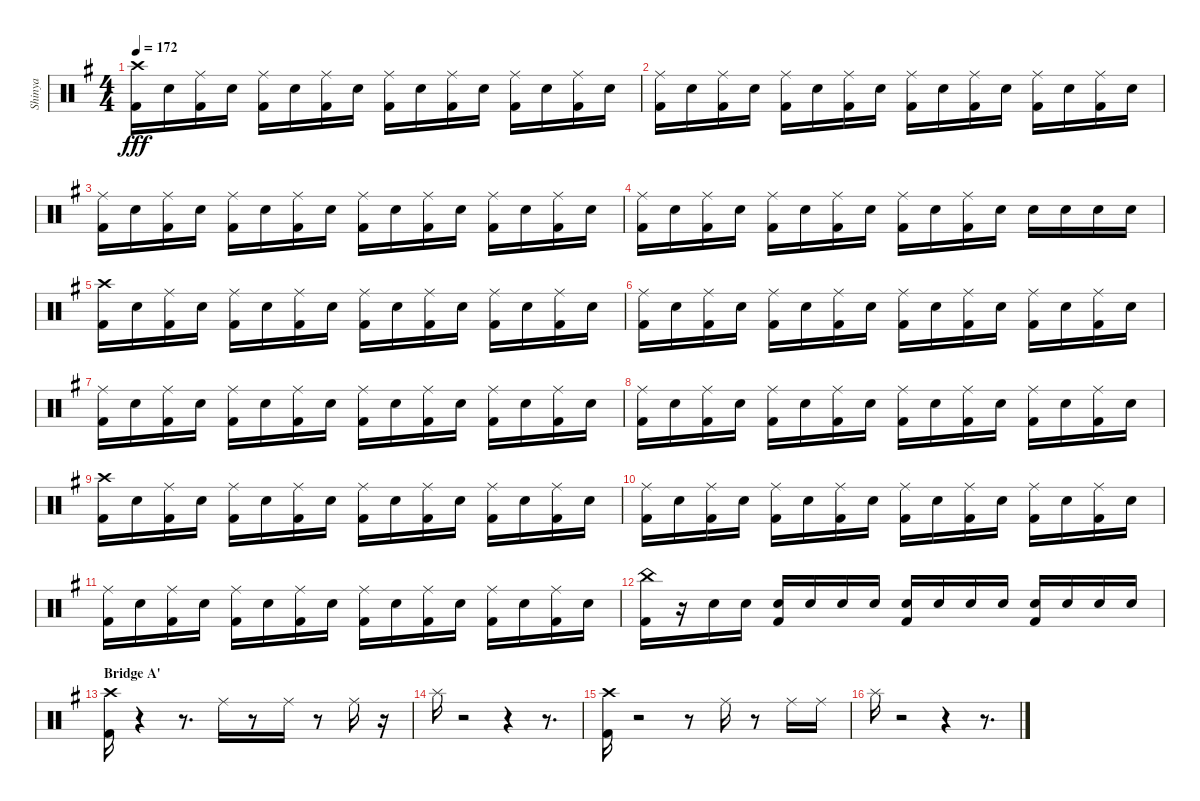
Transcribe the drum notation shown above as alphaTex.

\track ("Shinya" "Shinya") {instrument percussion}
\staff {score}
\articulation defaults
\ts (4 4)
\tempo 172
\clef neutral
\ks eminor
("Kick (hit) 2" "Crash high (hit)").16{dy fff} "Snare (hit) 2".16 ("Kick (hit) 2" "Ride (middle)").16 "Snare (hit) 2".16 ("Kick (hit) 2" "Ride (middle)").16 "Snare (hit) 2".16 ("Kick (hit) 2" "Ride (middle)").16 "Snare (hit) 2".16 ("Kick (hit) 2" "Ride (middle)").16 "Snare (hit) 2".16 ("Kick (hit) 2" "Ride (middle)").16 "Snare (hit) 2".16 ("Kick (hit) 2" "Ride (middle)").16 "Snare (hit) 2".16 ("Kick (hit) 2" "Ride (middle)").16 "Snare (hit) 2".16 |
("Kick (hit) 2" "Ride (middle)").16 "Snare (hit) 2".16 ("Kick (hit) 2" "Ride (middle)").16 "Snare (hit) 2".16 ("Kick (hit) 2" "Ride (middle)").16 "Snare (hit) 2".16 ("Kick (hit) 2" "Ride (middle)").16 "Snare (hit) 2".16 ("Kick (hit) 2" "Ride (middle)").16 "Snare (hit) 2".16 ("Kick (hit) 2" "Ride (middle)").16 "Snare (hit) 2".16 ("Kick (hit) 2" "Ride (middle)").16 "Snare (hit) 2".16 ("Kick (hit) 2" "Ride (middle)").16 "Snare (hit) 2".16 |
("Kick (hit) 2" "Ride (middle)").16 "Snare (hit) 2".16 ("Kick (hit) 2" "Ride (middle)").16 "Snare (hit) 2".16 ("Kick (hit) 2" "Ride (middle)").16 "Snare (hit) 2".16 ("Kick (hit) 2" "Ride (middle)").16 "Snare (hit) 2".16 ("Kick (hit) 2" "Ride (middle)").16 "Snare (hit) 2".16 ("Kick (hit) 2" "Ride (middle)").16 "Snare (hit) 2".16 ("Kick (hit) 2" "Ride (middle)").16 "Snare (hit) 2".16 ("Kick (hit) 2" "Ride (middle)").16 "Snare (hit) 2".16 |
("Kick (hit) 2" "Ride (middle)").16 "Snare (hit) 2".16 ("Kick (hit) 2" "Ride (middle)").16 "Snare (hit) 2".16 ("Kick (hit) 2" "Ride (middle)").16 "Snare (hit) 2".16 ("Kick (hit) 2" "Ride (middle)").16 "Snare (hit) 2".16 ("Kick (hit) 2" "Ride (middle)").16 "Snare (hit) 2".16 ("Kick (hit) 2" "Ride (middle)").16 "Snare (hit) 2".16 "Snare (hit) 2".16 "Snare (hit) 2".16 "Snare (hit) 2".16 "Snare (hit) 2".16 |
("Kick (hit) 2" "Crash high (hit)").16 "Snare (hit) 2".16 ("Kick (hit) 2" "Ride (middle)").16 "Snare (hit) 2".16 ("Kick (hit) 2" "Ride (middle)").16 "Snare (hit) 2".16 ("Kick (hit) 2" "Ride (middle)").16 "Snare (hit) 2".16 ("Kick (hit) 2" "Ride (middle)").16 "Snare (hit) 2".16 ("Kick (hit) 2" "Ride (middle)").16 "Snare (hit) 2".16 ("Kick (hit) 2" "Ride (middle)").16 "Snare (hit) 2".16 ("Kick (hit) 2" "Ride (middle)").16 "Snare (hit) 2".16 |
("Kick (hit) 2" "Ride (middle)").16 "Snare (hit) 2".16 ("Kick (hit) 2" "Ride (middle)").16 "Snare (hit) 2".16 ("Kick (hit) 2" "Ride (middle)").16 "Snare (hit) 2".16 ("Kick (hit) 2" "Ride (middle)").16 "Snare (hit) 2".16 ("Kick (hit) 2" "Ride (middle)").16 "Snare (hit) 2".16 ("Kick (hit) 2" "Ride (middle)").16 "Snare (hit) 2".16 ("Kick (hit) 2" "Ride (middle)").16 "Snare (hit) 2".16 ("Kick (hit) 2" "Ride (middle)").16 "Snare (hit) 2".16 |
("Kick (hit) 2" "Ride (middle)").16 "Snare (hit) 2".16 ("Kick (hit) 2" "Ride (middle)").16 "Snare (hit) 2".16 ("Kick (hit) 2" "Ride (middle)").16 "Snare (hit) 2".16 ("Kick (hit) 2" "Ride (middle)").16 "Snare (hit) 2".16 ("Kick (hit) 2" "Ride (middle)").16 "Snare (hit) 2".16 ("Kick (hit) 2" "Ride (middle)").16 "Snare (hit) 2".16 ("Kick (hit) 2" "Ride (middle)").16 "Snare (hit) 2".16 ("Kick (hit) 2" "Ride (middle)").16 "Snare (hit) 2".16 |
("Kick (hit) 2" "Ride (middle)").16 "Snare (hit) 2".16 ("Kick (hit) 2" "Ride (middle)").16 "Snare (hit) 2".16 ("Kick (hit) 2" "Ride (middle)").16 "Snare (hit) 2".16 ("Kick (hit) 2" "Ride (middle)").16 "Snare (hit) 2".16 ("Kick (hit) 2" "Ride (middle)").16 "Snare (hit) 2".16 ("Kick (hit) 2" "Ride (middle)").16 "Snare (hit) 2".16 ("Kick (hit) 2" "Ride (middle)").16 "Snare (hit) 2".16 ("Kick (hit) 2" "Ride (middle)").16 "Snare (hit) 2".16 |
("Kick (hit) 2" "Crash high (hit)").16 "Snare (hit) 2".16 ("Kick (hit) 2" "Ride (middle)").16 "Snare (hit) 2".16 ("Kick (hit) 2" "Ride (middle)").16 "Snare (hit) 2".16 ("Kick (hit) 2" "Ride (middle)").16 "Snare (hit) 2".16 ("Kick (hit) 2" "Ride (middle)").16 "Snare (hit) 2".16 ("Kick (hit) 2" "Ride (middle)").16 "Snare (hit) 2".16 ("Kick (hit) 2" "Ride (middle)").16 "Snare (hit) 2".16 ("Kick (hit) 2" "Ride (middle)").16 "Snare (hit) 2".16 |
("Kick (hit) 2" "Ride (middle)").16 "Snare (hit) 2".16 ("Kick (hit) 2" "Ride (middle)").16 "Snare (hit) 2".16 ("Kick (hit) 2" "Ride (middle)").16 "Snare (hit) 2".16 ("Kick (hit) 2" "Ride (middle)").16 "Snare (hit) 2".16 ("Kick (hit) 2" "Ride (middle)").16 "Snare (hit) 2".16 ("Kick (hit) 2" "Ride (middle)").16 "Snare (hit) 2".16 ("Kick (hit) 2" "Ride (middle)").16 "Snare (hit) 2".16 ("Kick (hit) 2" "Ride (middle)").16 "Snare (hit) 2".16 |
("Kick (hit) 2" "Ride (middle)").16 "Snare (hit) 2".16 ("Kick (hit) 2" "Ride (middle)").16 "Snare (hit) 2".16 ("Kick (hit) 2" "Ride (middle)").16 "Snare (hit) 2".16 ("Kick (hit) 2" "Ride (middle)").16 "Snare (hit) 2".16 ("Kick (hit) 2" "Ride (middle)").16 "Snare (hit) 2".16 ("Kick (hit) 2" "Ride (middle)").16 "Snare (hit) 2".16 ("Kick (hit) 2" "Ride (middle)").16 "Snare (hit) 2".16 ("Kick (hit) 2" "Ride (middle)").16 "Snare (hit) 2".16 |
("Kick (hit) 2" "China (hit)").16 r.16 "Snare (hit) 2".16 "Snare (hit) 2".16 ("Kick (hit) 2" "Snare (hit) 2").16 "Snare (hit) 2".16 "Snare (hit) 2".16 "Snare (hit) 2".16 ("Kick (hit) 2" "Snare (hit) 2").16 "Snare (hit) 2".16 "Snare (hit) 2".16 "Snare (hit) 2".16 ("Kick (hit) 2" "Snare (hit) 2").16 "Snare (hit) 2".16 "Snare (hit) 2".16 "Snare (hit) 2".16 |
\section ("" "Bridge A'")
("Kick (hit) 2" "Crash high (hit)").16 r.4 r.8{d} "Ride (middle)".16 r.8 "Ride (middle)".16 r.8 "Ride (middle)".16 r.16 |
"Splash (hit)".16 r.2 r.4 r.8{d} |
("Kick (hit) 2" "Crash high (hit)").16 r.2 r.8 "Ride (middle)".16 r.8 "Ride (middle)".16 "Ride (middle)".16 |
"Splash (hit)".16 r.2 r.4 r.8{d}
